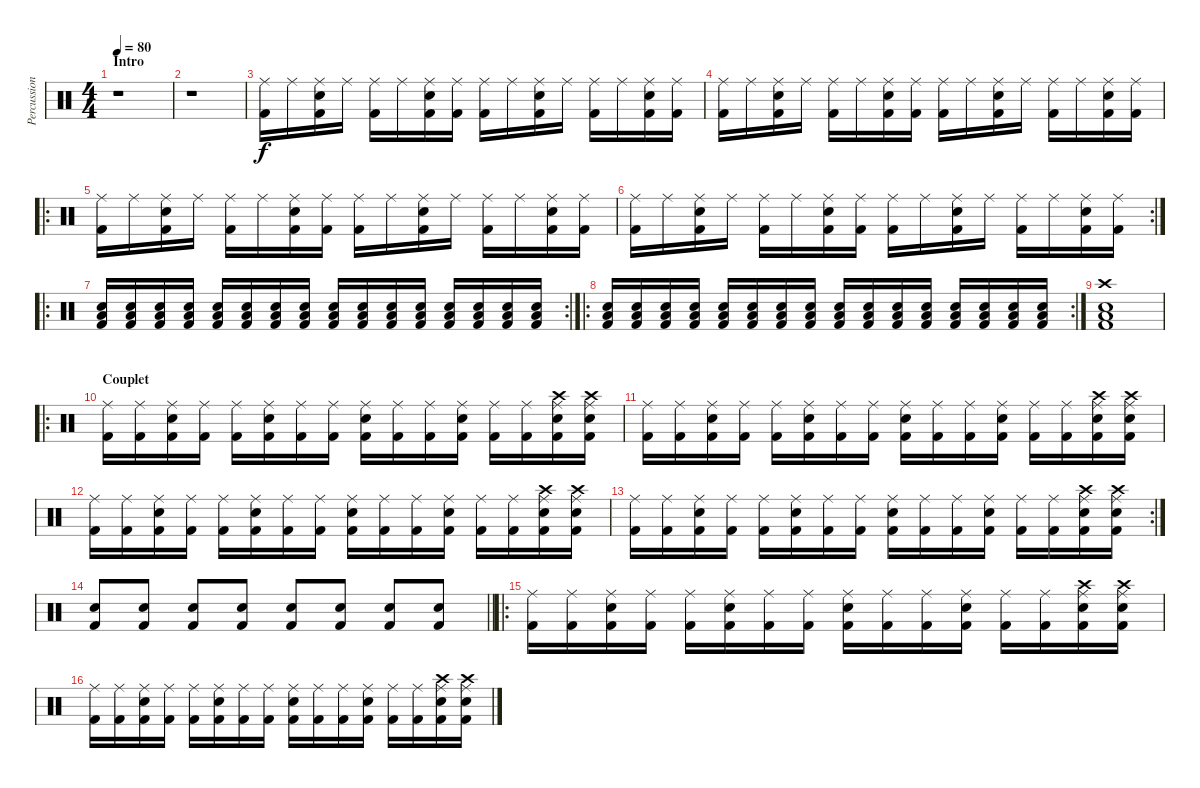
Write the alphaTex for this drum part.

\track ("Percussions" "Percussion") {instrument percussion}
\staff {score}
\articulation defaults
\ts (4 4)
\section ("" "Intro")
\tempo 80
\clef neutral
\ks c
r.1{dy f} |
r.1 |
("Ride (middle)" "Kick (hit) 2").16 "Ride (middle)".16 ("Ride (middle)" "Snare (hit) 2" "Kick (hit) 2").16 "Ride (middle)".16 ("Ride (middle)" "Kick (hit) 2").16 "Ride (middle)".16 ("Ride (middle)" "Snare (hit) 2" "Kick (hit) 2").16 ("Ride (middle)" "Kick (hit) 2").16 ("Ride (middle)" "Kick (hit) 2").16 "Ride (middle)".16 ("Ride (middle)" "Snare (hit) 2" "Kick (hit) 2").16 "Ride (middle)".16 ("Ride (middle)" "Kick (hit) 2").16 "Ride (middle)".16 ("Ride (middle)" "Snare (hit) 2" "Kick (hit) 2").16 ("Ride (middle)" "Kick (hit) 2").16 |
("Ride (middle)" "Kick (hit) 2").16 "Ride (middle)".16 ("Ride (middle)" "Snare (hit) 2" "Kick (hit) 2").16 "Ride (middle)".16 ("Ride (middle)" "Kick (hit) 2").16 "Ride (middle)".16 ("Ride (middle)" "Snare (hit) 2" "Kick (hit) 2").16 ("Ride (middle)" "Kick (hit) 2").16 ("Ride (middle)" "Kick (hit) 2").16 "Ride (middle)".16 ("Ride (middle)" "Snare (hit) 2" "Kick (hit) 2").16 "Ride (middle)".16 ("Ride (middle)" "Kick (hit) 2").16 "Ride (middle)".16 ("Ride (middle)" "Snare (hit) 2" "Kick (hit) 2").16 ("Ride (middle)" "Kick (hit) 2").16 |
\ro
("Ride (middle)" "Kick (hit) 2").16 "Ride (middle)".16 ("Ride (middle)" "Snare (hit) 2" "Kick (hit) 2").16 "Ride (middle)".16 ("Ride (middle)" "Kick (hit) 2").16 "Ride (middle)".16 ("Ride (middle)" "Snare (hit) 2" "Kick (hit) 2").16 ("Ride (middle)" "Kick (hit) 2").16 ("Ride (middle)" "Kick (hit) 2").16 "Ride (middle)".16 ("Ride (middle)" "Snare (hit) 2" "Kick (hit) 2").16 "Ride (middle)".16 ("Ride (middle)" "Kick (hit) 2").16 "Ride (middle)".16 ("Ride (middle)" "Snare (hit) 2" "Kick (hit) 2").16 ("Ride (middle)" "Kick (hit) 2").16 |
\rc 2
("Ride (middle)" "Kick (hit) 2").16 "Ride (middle)".16 ("Ride (middle)" "Snare (hit) 2" "Kick (hit) 2").16 "Ride (middle)".16 ("Ride (middle)" "Kick (hit) 2").16 "Ride (middle)".16 ("Ride (middle)" "Snare (hit) 2" "Kick (hit) 2").16 ("Ride (middle)" "Kick (hit) 2").16 ("Ride (middle)" "Kick (hit) 2").16 "Ride (middle)".16 ("Ride (middle)" "Snare (hit) 2" "Kick (hit) 2").16 "Ride (middle)".16 ("Ride (middle)" "Kick (hit) 2").16 "Ride (middle)".16 ("Ride (middle)" "Snare (hit) 2" "Kick (hit) 2").16 ("Ride (middle)" "Kick (hit) 2").16 |
\ro
\rc 2
("Snare (hit) 2" "Low Tom (hit)" "Kick (hit) 2").16 ("Snare (hit) 2" "Low Tom (hit)" "Kick (hit) 2").16 ("Snare (hit) 2" "Low Tom (hit)" "Kick (hit) 2").16 ("Snare (hit) 2" "Low Tom (hit)" "Kick (hit) 2").16 ("Snare (hit) 2" "Low Tom (hit)" "Kick (hit) 2").16 ("Snare (hit) 2" "Low Tom (hit)" "Kick (hit) 2").16 ("Snare (hit) 2" "Low Tom (hit)" "Kick (hit) 2").16 ("Snare (hit) 2" "Low Tom (hit)" "Kick (hit) 2").16 ("Snare (hit) 2" "Low Tom (hit)" "Kick (hit) 2").16 ("Snare (hit) 2" "Low Tom (hit)" "Kick (hit) 2").16 ("Snare (hit) 2" "Low Tom (hit)" "Kick (hit) 2").16 ("Snare (hit) 2" "Low Tom (hit)" "Kick (hit) 2").16 ("Snare (hit) 2" "Low Tom (hit)" "Kick (hit) 2").16 ("Snare (hit) 2" "Low Tom (hit)" "Kick (hit) 2").16 ("Snare (hit) 2" "Low Tom (hit)" "Kick (hit) 2").16 ("Snare (hit) 2" "Low Tom (hit)" "Kick (hit) 2").16 |
\ro
\rc 2
("Snare (hit) 2" "Low Tom (hit)" "Kick (hit) 2").16 ("Snare (hit) 2" "Low Tom (hit)" "Kick (hit) 2").16 ("Snare (hit) 2" "Low Tom (hit)" "Kick (hit) 2").16 ("Snare (hit) 2" "Low Tom (hit)" "Kick (hit) 2").16 ("Snare (hit) 2" "Low Tom (hit)" "Kick (hit) 2").16 ("Snare (hit) 2" "Low Tom (hit)" "Kick (hit) 2").16 ("Snare (hit) 2" "Low Tom (hit)" "Kick (hit) 2").16 ("Snare (hit) 2" "Low Tom (hit)" "Kick (hit) 2").16 ("Snare (hit) 2" "Low Tom (hit)" "Kick (hit) 2").16 ("Snare (hit) 2" "Low Tom (hit)" "Kick (hit) 2").16 ("Snare (hit) 2" "Low Tom (hit)" "Kick (hit) 2").16 ("Snare (hit) 2" "Low Tom (hit)" "Kick (hit) 2").16 ("Snare (hit) 2" "Low Tom (hit)" "Kick (hit) 2").16 ("Snare (hit) 2" "Low Tom (hit)" "Kick (hit) 2").16 ("Snare (hit) 2" "Low Tom (hit)" "Kick (hit) 2").16 ("Snare (hit) 2" "Low Tom (hit)" "Kick (hit) 2").16 |
("Crash high (hit)" "Snare (hit) 2" "Low Tom (hit)" "Kick (hit) 2").1 |
\ro
\section ("" "Couplet")
("Ride (middle)" "Kick (hit) 2").16 ("Ride (middle)" "Kick (hit) 2").16 ("Ride (middle)" "Snare (hit) 2" "Kick (hit) 2").16 ("Ride (middle)" "Kick (hit) 2").16 ("Ride (middle)" "Kick (hit) 2").16 ("Ride (middle)" "Snare (hit) 2" "Kick (hit) 2").16 ("Ride (middle)" "Kick (hit) 2").16 ("Ride (middle)" "Kick (hit) 2").16 ("Ride (middle)" "Snare (hit) 2" "Kick (hit) 2").16 ("Ride (middle)" "Kick (hit) 2").16 ("Ride (middle)" "Kick (hit) 2").16 ("Ride (middle)" "Snare (hit) 2" "Kick (hit) 2").16 ("Ride (middle)" "Kick (hit) 2").16 ("Ride (middle)" "Kick (hit) 2").16 ("Ride (middle)" "Snare (hit) 2" "Kick (hit) 2" "Crash high (hit)").16 ("Ride (middle)" "Snare (hit) 2" "Kick (hit) 2" "Crash high (hit)").16 |
("Ride (middle)" "Kick (hit) 2").16 ("Ride (middle)" "Kick (hit) 2").16 ("Ride (middle)" "Snare (hit) 2" "Kick (hit) 2").16 ("Ride (middle)" "Kick (hit) 2").16 ("Ride (middle)" "Kick (hit) 2").16 ("Ride (middle)" "Snare (hit) 2" "Kick (hit) 2").16 ("Ride (middle)" "Kick (hit) 2").16 ("Ride (middle)" "Kick (hit) 2").16 ("Ride (middle)" "Snare (hit) 2" "Kick (hit) 2").16 ("Ride (middle)" "Kick (hit) 2").16 ("Ride (middle)" "Kick (hit) 2").16 ("Ride (middle)" "Snare (hit) 2" "Kick (hit) 2").16 ("Ride (middle)" "Kick (hit) 2").16 ("Ride (middle)" "Kick (hit) 2").16 ("Ride (middle)" "Snare (hit) 2" "Kick (hit) 2" "Crash high (hit)").16 ("Ride (middle)" "Snare (hit) 2" "Kick (hit) 2" "Crash high (hit)").16 |
("Ride (middle)" "Kick (hit) 2").16 ("Ride (middle)" "Kick (hit) 2").16 ("Ride (middle)" "Snare (hit) 2" "Kick (hit) 2").16 ("Ride (middle)" "Kick (hit) 2").16 ("Ride (middle)" "Kick (hit) 2").16 ("Ride (middle)" "Snare (hit) 2" "Kick (hit) 2").16 ("Ride (middle)" "Kick (hit) 2").16 ("Ride (middle)" "Kick (hit) 2").16 ("Ride (middle)" "Snare (hit) 2" "Kick (hit) 2").16 ("Ride (middle)" "Kick (hit) 2").16 ("Ride (middle)" "Kick (hit) 2").16 ("Ride (middle)" "Snare (hit) 2" "Kick (hit) 2").16 ("Ride (middle)" "Kick (hit) 2").16 ("Ride (middle)" "Kick (hit) 2").16 ("Ride (middle)" "Snare (hit) 2" "Kick (hit) 2" "Crash high (hit)").16 ("Ride (middle)" "Snare (hit) 2" "Kick (hit) 2" "Crash high (hit)").16 |
\rc 2
("Ride (middle)" "Kick (hit) 2").16 ("Ride (middle)" "Kick (hit) 2").16 ("Ride (middle)" "Snare (hit) 2" "Kick (hit) 2").16 ("Ride (middle)" "Kick (hit) 2").16 ("Ride (middle)" "Kick (hit) 2").16 ("Ride (middle)" "Snare (hit) 2" "Kick (hit) 2").16 ("Ride (middle)" "Kick (hit) 2").16 ("Ride (middle)" "Kick (hit) 2").16 ("Ride (middle)" "Snare (hit) 2" "Kick (hit) 2").16 ("Ride (middle)" "Kick (hit) 2").16 ("Ride (middle)" "Kick (hit) 2").16 ("Ride (middle)" "Snare (hit) 2" "Kick (hit) 2").16 ("Ride (middle)" "Kick (hit) 2").16 ("Ride (middle)" "Kick (hit) 2").16 ("Ride (middle)" "Snare (hit) 2" "Kick (hit) 2" "Crash high (hit)").16 ("Ride (middle)" "Snare (hit) 2" "Kick (hit) 2" "Crash high (hit)").16 |
\barLineRight lightlight
("Kick (hit) 2" "Electric Snare (hit)").8 ("Kick (hit) 2" "Electric Snare (hit)").8 ("Kick (hit) 2" "Electric Snare (hit)").8 ("Kick (hit) 2" "Electric Snare (hit)").8 ("Kick (hit) 2" "Electric Snare (hit)").8 ("Kick (hit) 2" "Electric Snare (hit)").8 ("Kick (hit) 2" "Electric Snare (hit)").8 ("Kick (hit) 2" "Electric Snare (hit)").8 |
\ro
("Ride (middle)" "Kick (hit) 2").16 ("Ride (middle)" "Kick (hit) 2").16 ("Ride (middle)" "Snare (hit) 2" "Kick (hit) 2").16 ("Ride (middle)" "Kick (hit) 2").16 ("Ride (middle)" "Kick (hit) 2").16 ("Ride (middle)" "Snare (hit) 2" "Kick (hit) 2").16 ("Ride (middle)" "Kick (hit) 2").16 ("Ride (middle)" "Kick (hit) 2").16 ("Ride (middle)" "Snare (hit) 2" "Kick (hit) 2").16 ("Ride (middle)" "Kick (hit) 2").16 ("Ride (middle)" "Kick (hit) 2").16 ("Ride (middle)" "Snare (hit) 2" "Kick (hit) 2").16 ("Ride (middle)" "Kick (hit) 2").16 ("Ride (middle)" "Kick (hit) 2").16 ("Ride (middle)" "Snare (hit) 2" "Kick (hit) 2" "Crash high (hit)").16 ("Ride (middle)" "Snare (hit) 2" "Kick (hit) 2" "Crash high (hit)").16 |
("Ride (middle)" "Kick (hit) 2").16 ("Ride (middle)" "Kick (hit) 2").16 ("Ride (middle)" "Snare (hit) 2" "Kick (hit) 2").16 ("Ride (middle)" "Kick (hit) 2").16 ("Ride (middle)" "Kick (hit) 2").16 ("Ride (middle)" "Snare (hit) 2" "Kick (hit) 2").16 ("Ride (middle)" "Kick (hit) 2").16 ("Ride (middle)" "Kick (hit) 2").16 ("Ride (middle)" "Snare (hit) 2" "Kick (hit) 2").16 ("Ride (middle)" "Kick (hit) 2").16 ("Ride (middle)" "Kick (hit) 2").16 ("Ride (middle)" "Snare (hit) 2" "Kick (hit) 2").16 ("Ride (middle)" "Kick (hit) 2").16 ("Ride (middle)" "Kick (hit) 2").16 ("Ride (middle)" "Snare (hit) 2" "Kick (hit) 2" "Crash high (hit)").16 ("Ride (middle)" "Snare (hit) 2" "Kick (hit) 2" "Crash high (hit)").16
